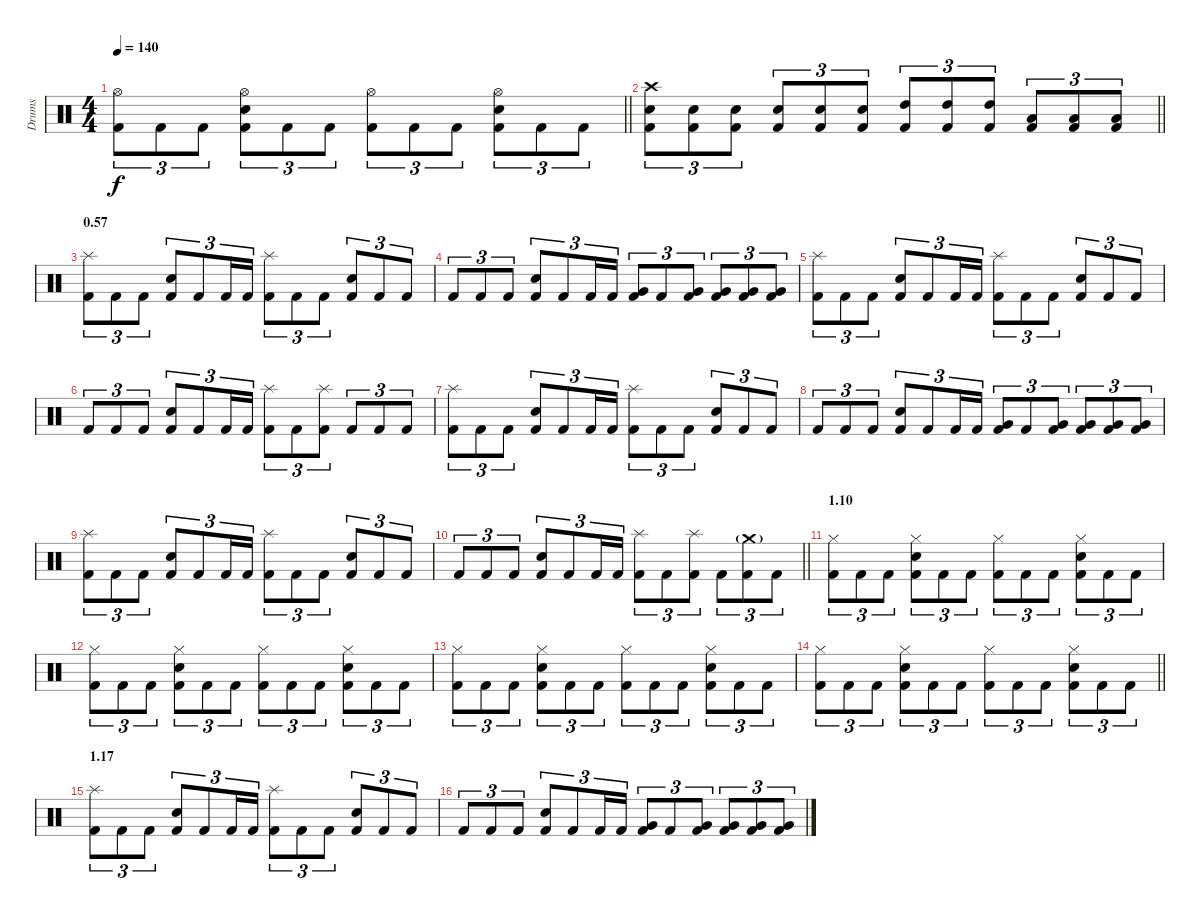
\track ("Drums" "Drums") {instrument percussion}
\staff {score}
\articulation defaults
\ts (4 4)
\tempo 140
\clef neutral
\barLineRight lightlight
\ks c
("Hi-Hat (open)" "Kick (hit) 2").8{tu (3 2) dy f} "Kick (hit) 2".8{tu (3 2)} "Kick (hit) 2".8{tu (3 2)} ("Hi-Hat (open)" "Electric Snare (hit)" "Kick (hit) 2").8{tu (3 2)} "Kick (hit) 2".8{tu (3 2)} "Kick (hit) 2".8{tu (3 2)} ("Hi-Hat (open)" "Kick (hit) 2").8{tu (3 2)} "Kick (hit) 2".8{tu (3 2)} "Kick (hit) 2".8{tu (3 2)} ("Hi-Hat (open)" "Electric Snare (hit)" "Kick (hit) 2").8{tu (3 2)} "Kick (hit) 2".8{tu (3 2)} "Kick (hit) 2".8{tu (3 2)} |
\barLineRight lightlight
("Crash high (hit)" "Electric Snare (hit)" "Kick (hit) 2").8{tu (3 2)} ("Electric Snare (hit)" "Kick (hit) 2").8{tu (3 2)} ("Electric Snare (hit)" "Kick (hit) 2").8{tu (3 2)} ("Electric Snare (hit)" "Kick (hit) 2").8{tu (3 2)} ("Electric Snare (hit)" "Kick (hit) 2").8{tu (3 2)} ("Electric Snare (hit)" "Kick (hit) 2").8{tu (3 2)} ("High Tom (hit)" "Kick (hit) 2").8{tu (3 2)} ("High Tom (hit)" "Kick (hit) 2").8{tu (3 2)} ("High Tom (hit)" "Kick (hit) 2").8{tu (3 2)} ("Low Tom (hit)" "Kick (hit) 2").8{tu (3 2)} ("Low Tom (hit)" "Kick (hit) 2").8{tu (3 2)} ("Low Tom (hit)" "Kick (hit) 2").8{tu (3 2)} |
\section ("" "0.57")
("Splash (hit)" "Kick (hit) 2").8{tu (3 2)} "Kick (hit) 2".8{tu (3 2)} "Kick (hit) 2".8{tu (3 2)} ("Electric Snare (hit)" "Kick (hit) 2").8{tu (3 2)} "Kick (hit) 2".8{tu (3 2)} "Kick (hit) 2".16{tu (3 2)} "Kick (hit) 2".16{tu (3 2)} ("Splash (hit)" "Kick (hit) 2").8{tu (3 2)} "Kick (hit) 2".8{tu (3 2)} "Kick (hit) 2".8{tu (3 2)} ("Electric Snare (hit)" "Kick (hit) 2").8{tu (3 2)} "Kick (hit) 2".8{tu (3 2)} "Kick (hit) 2".8{tu (3 2)} |
"Kick (hit) 2".8{tu (3 2)} "Kick (hit) 2".8{tu (3 2)} "Kick (hit) 2".8{tu (3 2)} ("Electric Snare (hit)" "Kick (hit) 2").8{tu (3 2)} "Kick (hit) 2".8{tu (3 2)} "Kick (hit) 2".16{tu (3 2)} "Kick (hit) 2".16{tu (3 2)} ("Very Low Tom (hit)" "Kick (hit) 2").8{tu (3 2)} "Kick (hit) 2".8{tu (3 2)} ("Very Low Tom (hit)" "Kick (hit) 2").8{tu (3 2)} ("Very Low Tom (hit)" "Kick (hit) 2").8{tu (3 2)} ("Very Low Tom (hit)" "Kick (hit) 2").8{tu (3 2)} ("Very Low Tom (hit)" "Kick (hit) 2").8{tu (3 2)} |
("Splash (hit)" "Kick (hit) 2").8{tu (3 2)} "Kick (hit) 2".8{tu (3 2)} "Kick (hit) 2".8{tu (3 2)} ("Electric Snare (hit)" "Kick (hit) 2").8{tu (3 2)} "Kick (hit) 2".8{tu (3 2)} "Kick (hit) 2".16{tu (3 2)} "Kick (hit) 2".16{tu (3 2)} ("Splash (hit)" "Kick (hit) 2").8{tu (3 2)} "Kick (hit) 2".8{tu (3 2)} "Kick (hit) 2".8{tu (3 2)} ("Electric Snare (hit)" "Kick (hit) 2").8{tu (3 2)} "Kick (hit) 2".8{tu (3 2)} "Kick (hit) 2".8{tu (3 2)} |
"Kick (hit) 2".8{tu (3 2)} "Kick (hit) 2".8{tu (3 2)} "Kick (hit) 2".8{tu (3 2)} ("Electric Snare (hit)" "Kick (hit) 2").8{tu (3 2)} "Kick (hit) 2".8{tu (3 2)} "Kick (hit) 2".16{tu (3 2)} "Kick (hit) 2".16{tu (3 2)} ("Splash (hit)" "Kick (hit) 2").8{tu (3 2)} "Kick (hit) 2".8{tu (3 2)} ("Splash (hit)" "Kick (hit) 2").8{tu (3 2)} "Kick (hit) 2".8{tu (3 2)} "Kick (hit) 2".8{tu (3 2)} "Kick (hit) 2".8{tu (3 2)} |
("Splash (hit)" "Kick (hit) 2").8{tu (3 2)} "Kick (hit) 2".8{tu (3 2)} "Kick (hit) 2".8{tu (3 2)} ("Electric Snare (hit)" "Kick (hit) 2").8{tu (3 2)} "Kick (hit) 2".8{tu (3 2)} "Kick (hit) 2".16{tu (3 2)} "Kick (hit) 2".16{tu (3 2)} ("Splash (hit)" "Kick (hit) 2").8{tu (3 2)} "Kick (hit) 2".8{tu (3 2)} "Kick (hit) 2".8{tu (3 2)} ("Electric Snare (hit)" "Kick (hit) 2").8{tu (3 2)} "Kick (hit) 2".8{tu (3 2)} "Kick (hit) 2".8{tu (3 2)} |
"Kick (hit) 2".8{tu (3 2)} "Kick (hit) 2".8{tu (3 2)} "Kick (hit) 2".8{tu (3 2)} ("Electric Snare (hit)" "Kick (hit) 2").8{tu (3 2)} "Kick (hit) 2".8{tu (3 2)} "Kick (hit) 2".16{tu (3 2)} "Kick (hit) 2".16{tu (3 2)} ("Very Low Tom (hit)" "Kick (hit) 2").8{tu (3 2)} "Kick (hit) 2".8{tu (3 2)} ("Very Low Tom (hit)" "Kick (hit) 2").8{tu (3 2)} ("Very Low Tom (hit)" "Kick (hit) 2").8{tu (3 2)} ("Very Low Tom (hit)" "Kick (hit) 2").8{tu (3 2)} ("Very Low Tom (hit)" "Kick (hit) 2").8{tu (3 2)} |
("Splash (hit)" "Kick (hit) 2").8{tu (3 2)} "Kick (hit) 2".8{tu (3 2)} "Kick (hit) 2".8{tu (3 2)} ("Electric Snare (hit)" "Kick (hit) 2").8{tu (3 2)} "Kick (hit) 2".8{tu (3 2)} "Kick (hit) 2".16{tu (3 2)} "Kick (hit) 2".16{tu (3 2)} ("Splash (hit)" "Kick (hit) 2").8{tu (3 2)} "Kick (hit) 2".8{tu (3 2)} "Kick (hit) 2".8{tu (3 2)} ("Electric Snare (hit)" "Kick (hit) 2").8{tu (3 2)} "Kick (hit) 2".8{tu (3 2)} "Kick (hit) 2".8{tu (3 2)} |
\barLineRight lightlight "Kick (hit) 2".8{tu (3 2)} "Kick (hit) 2".8{tu (3 2)} "Kick (hit) 2".8{tu (3 2)}
("Electric Snare (hit)" "Kick (hit) 2").8{tu (3 2)} "Kick (hit) 2".8{tu (3 2)} "Kick (hit) 2".16{tu (3 2)} "Kick (hit) 2".16{tu (3 2)} ("Splash (hit)" "Kick (hit) 2").8{tu (3 2)} "Kick (hit) 2".8{tu (3 2)} ("Splash (hit)" "Kick (hit) 2").8{tu (3 2)} "Kick (hit) 2".8{tu (3 2)} ("Crash medium (hit)"{g} "Kick (hit) 2").8{tu (3 2)} "Kick (hit) 2".8{tu (3 2)} |
\section ("" "1.10")
("Hi-Hat (closed)" "Kick (hit) 2").8{tu (3 2)} "Kick (hit) 2".8{tu (3 2)} "Kick (hit) 2".8{tu (3 2)} ("Hi-Hat (closed)" "Electric Snare (hit)" "Kick (hit) 2").8{tu (3 2)} "Kick (hit) 2".8{tu (3 2)} "Kick (hit) 2".8{tu (3 2)} ("Hi-Hat (closed)" "Kick (hit) 2").8{tu (3 2)} "Kick (hit) 2".8{tu (3 2)} "Kick (hit) 2".8{tu (3 2)} ("Hi-Hat (closed)" "Electric Snare (hit)" "Kick (hit) 2").8{tu (3 2)} "Kick (hit) 2".8{tu (3 2)} "Kick (hit) 2".8{tu (3 2)} |
("Hi-Hat (closed)" "Kick (hit) 2").8{tu (3 2)} "Kick (hit) 2".8{tu (3 2)} "Kick (hit) 2".8{tu (3 2)} ("Hi-Hat (closed)" "Electric Snare (hit)" "Kick (hit) 2").8{tu (3 2)} "Kick (hit) 2".8{tu (3 2)} "Kick (hit) 2".8{tu (3 2)} ("Hi-Hat (closed)" "Kick (hit) 2").8{tu (3 2)} "Kick (hit) 2".8{tu (3 2)} "Kick (hit) 2".8{tu (3 2)} ("Hi-Hat (closed)" "Electric Snare (hit)" "Kick (hit) 2").8{tu (3 2)} "Kick (hit) 2".8{tu (3 2)} "Kick (hit) 2".8{tu (3 2)} |
("Hi-Hat (closed)" "Kick (hit) 2").8{tu (3 2)} "Kick (hit) 2".8{tu (3 2)} "Kick (hit) 2".8{tu (3 2)} ("Hi-Hat (closed)" "Electric Snare (hit)" "Kick (hit) 2").8{tu (3 2)} "Kick (hit) 2".8{tu (3 2)} "Kick (hit) 2".8{tu (3 2)} ("Hi-Hat (closed)" "Kick (hit) 2").8{tu (3 2)} "Kick (hit) 2".8{tu (3 2)} "Kick (hit) 2".8{tu (3 2)} ("Hi-Hat (closed)" "Electric Snare (hit)" "Kick (hit) 2").8{tu (3 2)} "Kick (hit) 2".8{tu (3 2)} "Kick (hit) 2".8{tu (3 2)} |
\barLineRight lightlight
("Hi-Hat (closed)" "Kick (hit) 2").8{tu (3 2)} "Kick (hit) 2".8{tu (3 2)} "Kick (hit) 2".8{tu (3 2)} ("Hi-Hat (closed)" "Electric Snare (hit)" "Kick (hit) 2").8{tu (3 2)} "Kick (hit) 2".8{tu (3 2)} "Kick (hit) 2".8{tu (3 2)} ("Hi-Hat (closed)" "Kick (hit) 2").8{tu (3 2)} "Kick (hit) 2".8{tu (3 2)} "Kick (hit) 2".8{tu (3 2)} ("Hi-Hat (closed)" "Electric Snare (hit)" "Kick (hit) 2").8{tu (3 2)} "Kick (hit) 2".8{tu (3 2)} "Kick (hit) 2".8{tu (3 2)} |
\section ("" "1.17")
("Splash (hit)" "Kick (hit) 2").8{tu (3 2)} "Kick (hit) 2".8{tu (3 2)} "Kick (hit) 2".8{tu (3 2)} ("Electric Snare (hit)" "Kick (hit) 2").8{tu (3 2)} "Kick (hit) 2".8{tu (3 2)} "Kick (hit) 2".16{tu (3 2)} "Kick (hit) 2".16{tu (3 2)} ("Splash (hit)" "Kick (hit) 2").8{tu (3 2)} "Kick (hit) 2".8{tu (3 2)} "Kick (hit) 2".8{tu (3 2)} ("Electric Snare (hit)" "Kick (hit) 2").8{tu (3 2)} "Kick (hit) 2".8{tu (3 2)} "Kick (hit) 2".8{tu (3 2)} |
"Kick (hit) 2".8{tu (3 2)} "Kick (hit) 2".8{tu (3 2)} "Kick (hit) 2".8{tu (3 2)} ("Electric Snare (hit)" "Kick (hit) 2").8{tu (3 2)} "Kick (hit) 2".8{tu (3 2)} "Kick (hit) 2".16{tu (3 2)} "Kick (hit) 2".16{tu (3 2)} ("Very Low Tom (hit)" "Kick (hit) 2").8{tu (3 2)} "Kick (hit) 2".8{tu (3 2)} ("Very Low Tom (hit)" "Kick (hit) 2").8{tu (3 2)} ("Very Low Tom (hit)" "Kick (hit) 2").8{tu (3 2)} ("Very Low Tom (hit)" "Kick (hit) 2").8{tu (3 2)} ("Very Low Tom (hit)" "Kick (hit) 2").8{tu (3 2)}
